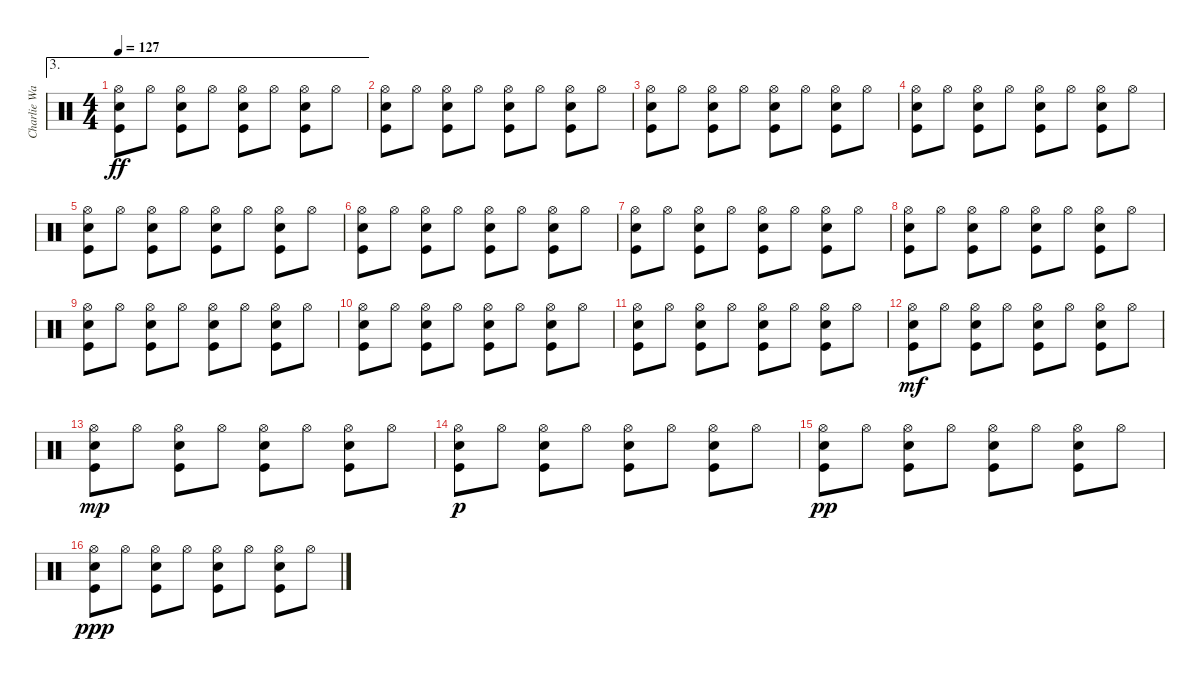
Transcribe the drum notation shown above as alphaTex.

\track ("Charlie Watts" "Charlie Wa") {instrument percussion}
\staff {score}
\articulation defaults
\ae 3
\ts (4 4)
\tempo 127
\clef neutral
\ks c
("Hi-Hat (open)" "Snare (hit) 2" "Kick (hit)").8{dy ff} "Hi-Hat (open)".8 ("Hi-Hat (open)" "Kick (hit)" "Snare (hit) 2").8 "Hi-Hat (open)".8 ("Hi-Hat (open)" "Snare (hit) 2" "Kick (hit)").8 "Hi-Hat (open)".8 ("Hi-Hat (open)" "Kick (hit)" "Snare (hit) 2").8 "Hi-Hat (open)".8 |
("Hi-Hat (open)" "Snare (hit) 2" "Kick (hit)").8 "Hi-Hat (open)".8 ("Hi-Hat (open)" "Kick (hit)" "Snare (hit) 2").8 "Hi-Hat (open)".8 ("Hi-Hat (open)" "Snare (hit) 2" "Kick (hit)").8 "Hi-Hat (open)".8 ("Hi-Hat (open)" "Kick (hit)" "Snare (hit) 2").8 "Hi-Hat (open)".8 |
("Hi-Hat (open)" "Snare (hit) 2" "Kick (hit)").8 "Hi-Hat (open)".8 ("Hi-Hat (open)" "Kick (hit)" "Snare (hit) 2").8 "Hi-Hat (open)".8 ("Hi-Hat (open)" "Snare (hit) 2" "Kick (hit)").8 "Hi-Hat (open)".8 ("Hi-Hat (open)" "Kick (hit)" "Snare (hit) 2").8 "Hi-Hat (open)".8 |
("Hi-Hat (open)" "Snare (hit) 2" "Kick (hit)").8 "Hi-Hat (open)".8 ("Hi-Hat (open)" "Kick (hit)" "Snare (hit) 2").8 "Hi-Hat (open)".8 ("Hi-Hat (open)" "Snare (hit) 2" "Kick (hit)").8 "Hi-Hat (open)".8 ("Hi-Hat (open)" "Kick (hit)" "Snare (hit) 2").8 "Hi-Hat (open)".8 |
("Hi-Hat (open)" "Snare (hit) 2" "Kick (hit)").8 "Hi-Hat (open)".8 ("Hi-Hat (open)" "Kick (hit)" "Snare (hit) 2").8 "Hi-Hat (open)".8 ("Hi-Hat (open)" "Snare (hit) 2" "Kick (hit)").8 "Hi-Hat (open)".8 ("Hi-Hat (open)" "Kick (hit)" "Snare (hit) 2").8 "Hi-Hat (open)".8 |
("Hi-Hat (open)" "Snare (hit) 2" "Kick (hit)").8 "Hi-Hat (open)".8 ("Hi-Hat (open)" "Kick (hit)" "Snare (hit) 2").8 "Hi-Hat (open)".8 ("Hi-Hat (open)" "Snare (hit) 2" "Kick (hit)").8 "Hi-Hat (open)".8 ("Hi-Hat (open)" "Kick (hit)" "Snare (hit) 2").8 "Hi-Hat (open)".8 |
("Hi-Hat (open)" "Snare (hit) 2" "Kick (hit)").8 "Hi-Hat (open)".8 ("Hi-Hat (open)" "Kick (hit)" "Snare (hit) 2").8 "Hi-Hat (open)".8 ("Hi-Hat (open)" "Snare (hit) 2" "Kick (hit)").8 "Hi-Hat (open)".8 ("Hi-Hat (open)" "Kick (hit)" "Snare (hit) 2").8 "Hi-Hat (open)".8 |
("Hi-Hat (open)" "Snare (hit) 2" "Kick (hit)").8 "Hi-Hat (open)".8 ("Hi-Hat (open)" "Kick (hit)" "Snare (hit) 2").8 "Hi-Hat (open)".8 ("Hi-Hat (open)" "Snare (hit) 2" "Kick (hit)").8 "Hi-Hat (open)".8 ("Hi-Hat (open)" "Kick (hit)" "Snare (hit) 2").8 "Hi-Hat (open)".8 |
("Hi-Hat (open)" "Snare (hit) 2" "Kick (hit)").8 "Hi-Hat (open)".8 ("Hi-Hat (open)" "Kick (hit)" "Snare (hit) 2").8 "Hi-Hat (open)".8 ("Hi-Hat (open)" "Snare (hit) 2" "Kick (hit)").8 "Hi-Hat (open)".8 ("Hi-Hat (open)" "Kick (hit)" "Snare (hit) 2").8 "Hi-Hat (open)".8 |
("Hi-Hat (open)" "Snare (hit) 2" "Kick (hit)").8 "Hi-Hat (open)".8 ("Hi-Hat (open)" "Kick (hit)" "Snare (hit) 2").8 "Hi-Hat (open)".8 ("Hi-Hat (open)" "Snare (hit) 2" "Kick (hit)").8 "Hi-Hat (open)".8 ("Hi-Hat (open)" "Kick (hit)" "Snare (hit) 2").8 "Hi-Hat (open)".8 |
("Hi-Hat (open)" "Snare (hit) 2" "Kick (hit)").8 "Hi-Hat (open)".8 ("Hi-Hat (open)" "Kick (hit)" "Snare (hit) 2").8 "Hi-Hat (open)".8 ("Hi-Hat (open)" "Snare (hit) 2" "Kick (hit)").8 "Hi-Hat (open)".8 ("Hi-Hat (open)" "Kick (hit)" "Snare (hit) 2").8 "Hi-Hat (open)".8 |
("Hi-Hat (open)" "Snare (hit) 2" "Kick (hit)").8{dy mf} "Hi-Hat (open)".8 ("Hi-Hat (open)" "Kick (hit)" "Snare (hit) 2").8 "Hi-Hat (open)".8 ("Hi-Hat (open)" "Snare (hit) 2" "Kick (hit)").8 "Hi-Hat (open)".8 ("Hi-Hat (open)" "Kick (hit)" "Snare (hit) 2").8 "Hi-Hat (open)".8 |
("Hi-Hat (open)" "Snare (hit) 2" "Kick (hit)").8{dy mp} "Hi-Hat (open)".8 ("Hi-Hat (open)" "Kick (hit)" "Snare (hit) 2").8 "Hi-Hat (open)".8 ("Hi-Hat (open)" "Snare (hit) 2" "Kick (hit)").8 "Hi-Hat (open)".8 ("Hi-Hat (open)" "Kick (hit)" "Snare (hit) 2").8 "Hi-Hat (open)".8 |
("Hi-Hat (open)" "Snare (hit) 2" "Kick (hit)").8{dy p} "Hi-Hat (open)".8 ("Hi-Hat (open)" "Kick (hit)" "Snare (hit) 2").8 "Hi-Hat (open)".8 ("Hi-Hat (open)" "Snare (hit) 2" "Kick (hit)").8 "Hi-Hat (open)".8 ("Hi-Hat (open)" "Kick (hit)" "Snare (hit) 2").8 "Hi-Hat (open)".8 |
("Hi-Hat (open)" "Snare (hit) 2" "Kick (hit)").8{dy pp} "Hi-Hat (open)".8 ("Hi-Hat (open)" "Kick (hit)" "Snare (hit) 2").8 "Hi-Hat (open)".8 ("Hi-Hat (open)" "Snare (hit) 2" "Kick (hit)").8 "Hi-Hat (open)".8 ("Hi-Hat (open)" "Kick (hit)" "Snare (hit) 2").8 "Hi-Hat (open)".8 |
("Hi-Hat (open)" "Snare (hit) 2" "Kick (hit)").8{dy ppp} "Hi-Hat (open)".8 ("Hi-Hat (open)" "Kick (hit)" "Snare (hit) 2").8 "Hi-Hat (open)".8 ("Hi-Hat (open)" "Snare (hit) 2" "Kick (hit)").8 "Hi-Hat (open)".8 ("Hi-Hat (open)" "Kick (hit)" "Snare (hit) 2").8 "Hi-Hat (open)".8
